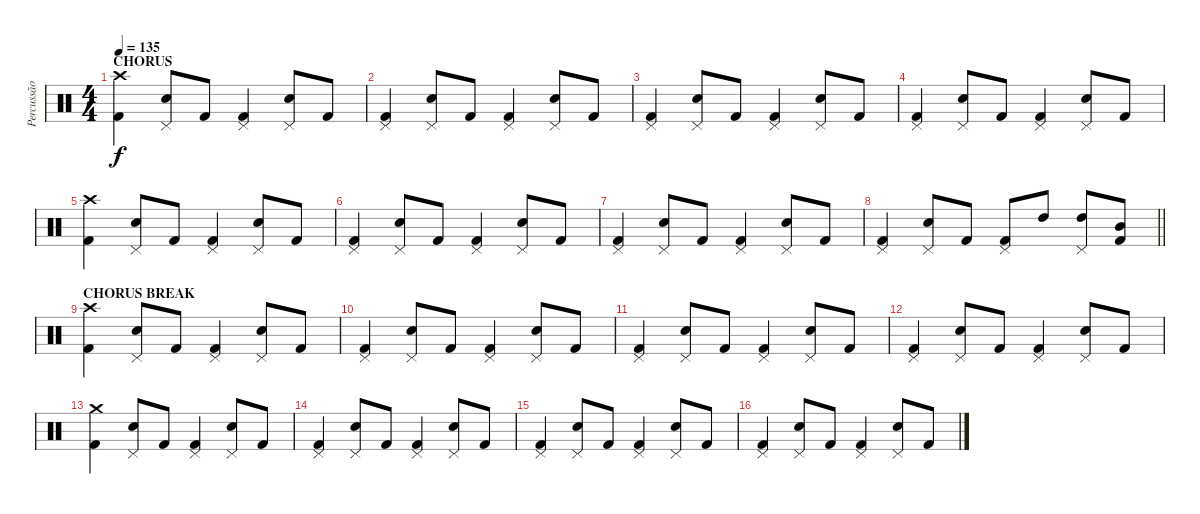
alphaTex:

\track ("Percussão" "Percussão") {instrument percussion}
\staff {score}
\articulation defaults
\ts (4 4)
\section ("" "CHORUS")
\tempo 135
\clef neutral
\ks c
("Crash high (hit)" "Kick (hit) 2").4{dy f} ("Pedal Hi-Hat (hit)" "Snare (hit) 2").8 "Kick (hit) 2".8 ("Pedal Hi-Hat (hit)" "Kick (hit) 2").4 ("Pedal Hi-Hat (hit)" "Snare (hit) 2").8 "Kick (hit) 2".8 |
("Pedal Hi-Hat (hit)" "Kick (hit) 2").4 ("Pedal Hi-Hat (hit)" "Snare (hit) 2").8 "Kick (hit) 2".8 ("Pedal Hi-Hat (hit)" "Kick (hit) 2").4 ("Pedal Hi-Hat (hit)" "Snare (hit) 2").8 "Kick (hit) 2".8 |
("Pedal Hi-Hat (hit)" "Kick (hit) 2").4 ("Pedal Hi-Hat (hit)" "Snare (hit) 2").8 "Kick (hit) 2".8 ("Pedal Hi-Hat (hit)" "Kick (hit) 2").4 ("Pedal Hi-Hat (hit)" "Snare (hit) 2").8 "Kick (hit) 2".8 |
("Pedal Hi-Hat (hit)" "Kick (hit) 2").4 ("Pedal Hi-Hat (hit)" "Snare (hit) 2").8 "Kick (hit) 2".8 ("Pedal Hi-Hat (hit)" "Kick (hit) 2").4 ("Pedal Hi-Hat (hit)" "Snare (hit) 2").8 "Kick (hit) 2".8 |
("Crash high (hit)" "Kick (hit) 2").4 ("Pedal Hi-Hat (hit)" "Snare (hit) 2").8 "Kick (hit) 2".8 ("Pedal Hi-Hat (hit)" "Kick (hit) 2").4 ("Pedal Hi-Hat (hit)" "Snare (hit) 2").8 "Kick (hit) 2".8 |
("Pedal Hi-Hat (hit)" "Kick (hit) 2").4 ("Pedal Hi-Hat (hit)" "Snare (hit) 2").8 "Kick (hit) 2".8 ("Pedal Hi-Hat (hit)" "Kick (hit) 2").4 ("Pedal Hi-Hat (hit)" "Snare (hit) 2").8 "Kick (hit) 2".8 |
("Pedal Hi-Hat (hit)" "Kick (hit) 2").4 ("Pedal Hi-Hat (hit)" "Snare (hit) 2").8 "Kick (hit) 2".8 ("Pedal Hi-Hat (hit)" "Kick (hit) 2").4 ("Pedal Hi-Hat (hit)" "Snare (hit) 2").8 "Kick (hit) 2".8 |
\barLineRight lightlight
("Pedal Hi-Hat (hit)" "Kick (hit) 2").4 ("Pedal Hi-Hat (hit)" "Snare (hit) 2").8 "Kick (hit) 2".8 ("Pedal Hi-Hat (hit)" "Kick (hit) 2").8 "High Tom (hit)".8 ("Pedal Hi-Hat (hit)" "High Tom (hit)").8 ("Mid Tom (hit)" "Kick (hit) 2").8 |
\section ("" "CHORUS BREAK")
("Crash high (hit)" "Kick (hit) 2").4 ("Pedal Hi-Hat (hit)" "Snare (hit) 2").8 "Kick (hit) 2".8 ("Pedal Hi-Hat (hit)" "Kick (hit) 2").4 ("Pedal Hi-Hat (hit)" "Snare (hit) 2").8 "Kick (hit) 2".8 |
("Pedal Hi-Hat (hit)" "Kick (hit) 2").4 ("Pedal Hi-Hat (hit)" "Snare (hit) 2").8 "Kick (hit) 2".8 ("Pedal Hi-Hat (hit)" "Kick (hit) 2").4 ("Pedal Hi-Hat (hit)" "Snare (hit) 2").8 "Kick (hit) 2".8 |
("Pedal Hi-Hat (hit)" "Kick (hit) 2").4 ("Pedal Hi-Hat (hit)" "Snare (hit) 2").8 "Kick (hit) 2".8 ("Pedal Hi-Hat (hit)" "Kick (hit) 2").4 ("Pedal Hi-Hat (hit)" "Snare (hit) 2").8 "Kick (hit) 2".8 |
("Pedal Hi-Hat (hit)" "Kick (hit) 2").4 ("Pedal Hi-Hat (hit)" "Snare (hit) 2").8 "Kick (hit) 2".8 ("Pedal Hi-Hat (hit)" "Kick (hit) 2").4 ("Pedal Hi-Hat (hit)" "Snare (hit) 2").8 "Kick (hit) 2".8 |
("Crash medium (hit)" "Kick (hit) 2").4 ("Pedal Hi-Hat (hit)" "Snare (hit) 2").8 "Kick (hit) 2".8 ("Pedal Hi-Hat (hit)" "Kick (hit) 2").4 ("Pedal Hi-Hat (hit)" "Snare (hit) 2").8 "Kick (hit) 2".8 |
("Pedal Hi-Hat (hit)" "Kick (hit) 2").4 ("Pedal Hi-Hat (hit)" "Snare (hit) 2").8 "Kick (hit) 2".8 ("Pedal Hi-Hat (hit)" "Kick (hit) 2").4 ("Pedal Hi-Hat (hit)" "Snare (hit) 2").8 "Kick (hit) 2".8 |
("Pedal Hi-Hat (hit)" "Kick (hit) 2").4 ("Pedal Hi-Hat (hit)" "Snare (hit) 2").8 "Kick (hit) 2".8 ("Pedal Hi-Hat (hit)" "Kick (hit) 2").4 ("Pedal Hi-Hat (hit)" "Snare (hit) 2").8 "Kick (hit) 2".8 |
("Pedal Hi-Hat (hit)" "Kick (hit) 2").4 ("Pedal Hi-Hat (hit)" "Snare (hit) 2").8 "Kick (hit) 2".8 ("Pedal Hi-Hat (hit)" "Kick (hit) 2").4 ("Pedal Hi-Hat (hit)" "Snare (hit) 2").8 "Kick (hit) 2".8
